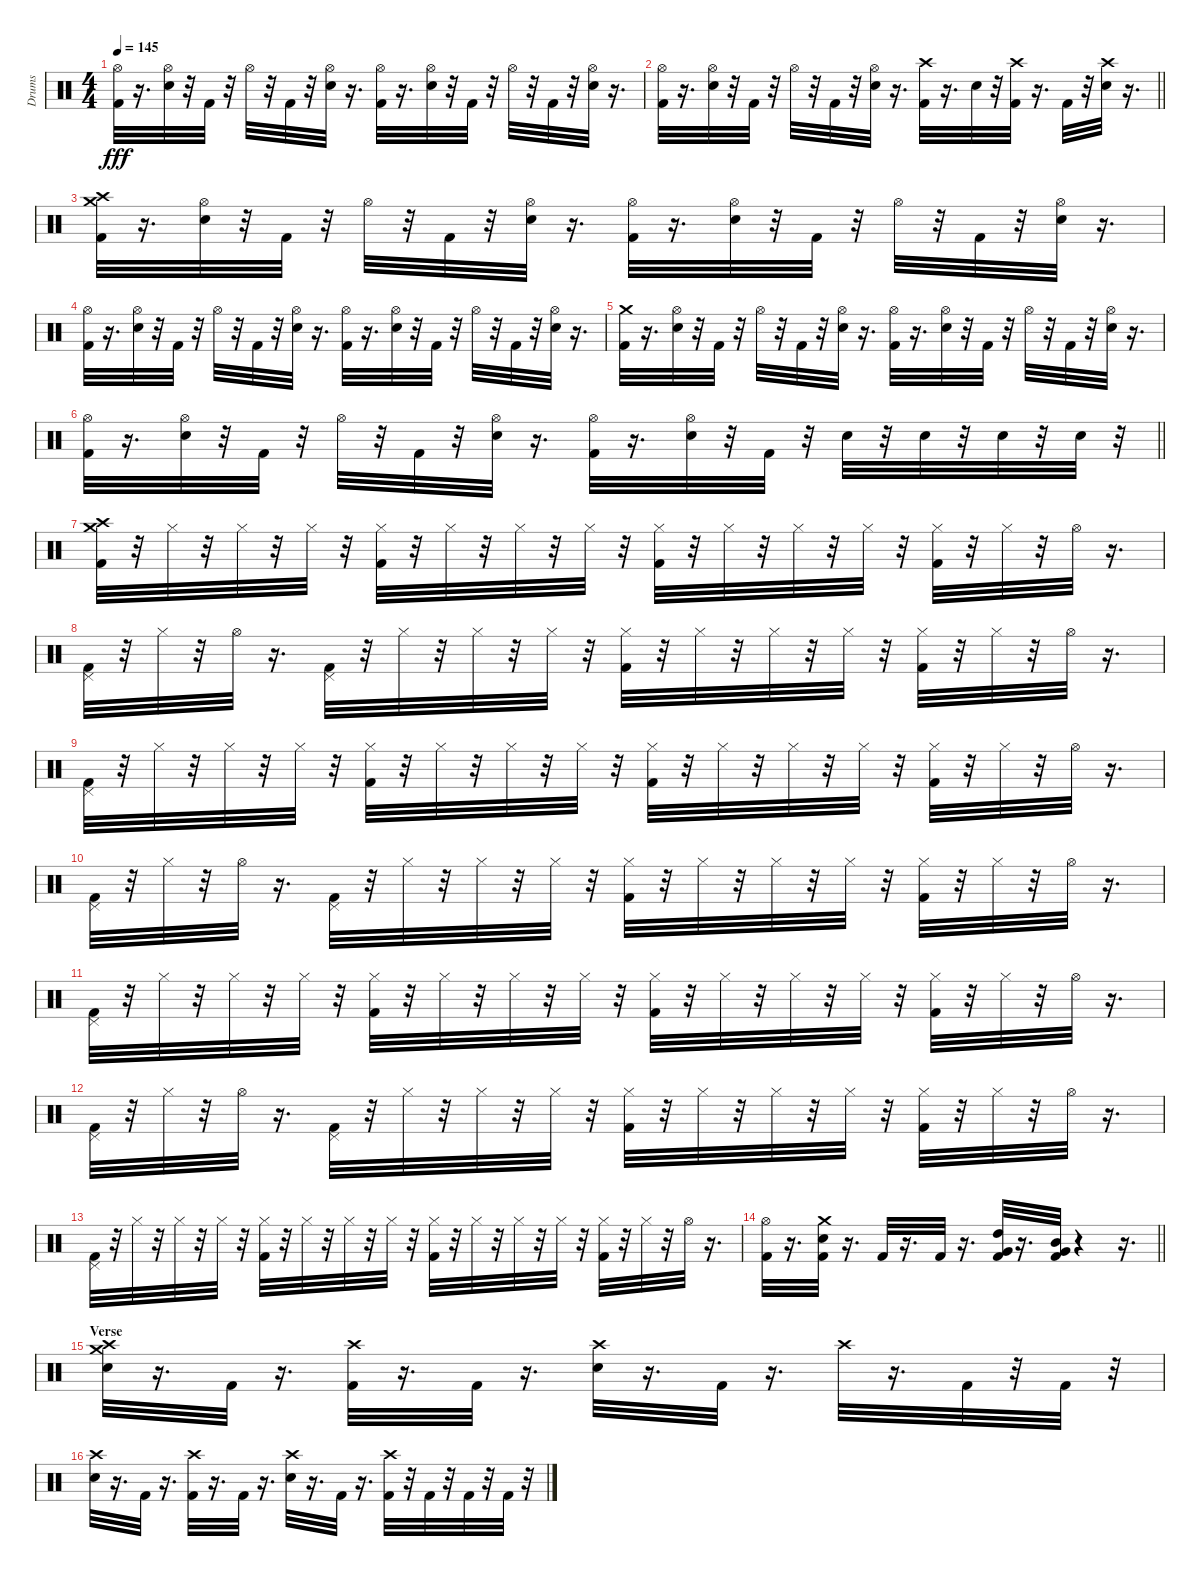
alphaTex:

\track ("Drums" "Drums") {instrument percussion}
\staff {score}
\articulation defaults
\ts (4 4)
\tempo 145
\clef neutral
\ks c
("Hi-Hat (open)" "Kick (hit) 2").32{dy fff} r.16{d} ("Hi-Hat (open)" "Snare (hit) 2").32 r.32 "Kick (hit) 2".32 r.32 "Hi-Hat (open)".32 r.32 "Kick (hit) 2".32 r.32 ("Hi-Hat (open)" "Snare (hit) 2").32 r.16{d} ("Hi-Hat (open)" "Kick (hit) 2").32 r.16{d} ("Hi-Hat (open)" "Snare (hit) 2").32 r.32 "Kick (hit) 2".32 r.32 "Hi-Hat (open)".32 r.32 "Kick (hit) 2".32 r.32 ("Hi-Hat (open)" "Snare (hit) 2").32 r.16{d} |
\barLineRight lightlight
("Hi-Hat (open)" "Kick (hit) 2").32 r.16{d} ("Hi-Hat (open)" "Snare (hit) 2").32 r.32 "Kick (hit) 2".32 r.32 "Hi-Hat (open)".32 r.32 "Kick (hit) 2".32 r.32 ("Hi-Hat (open)" "Snare (hit) 2").32 r.16{d} ("Crash high (hit)" "Kick (hit) 2").32 r.16{d} "Snare (hit) 2".32 r.32 ("Crash high (hit)" "Kick (hit) 2").32 r.16{d} "Kick (hit) 2".32 r.32 ("Crash high (hit)" "Snare (hit) 2").32 r.16{d} |
("Crash medium (hit)" "Crash high (hit)" "Kick (hit) 2").32 r.16{d} ("Hi-Hat (open)" "Snare (hit) 2").32 r.32 "Kick (hit) 2".32 r.32 "Hi-Hat (open)".32 r.32 "Kick (hit) 2".32 r.32 ("Hi-Hat (open)" "Snare (hit) 2").32 r.16{d} ("Hi-Hat (open)" "Kick (hit) 2").32 r.16{d} ("Hi-Hat (open)" "Snare (hit) 2").32 r.32 "Kick (hit) 2".32 r.32 "Hi-Hat (open)".32 r.32 "Kick (hit) 2".32 r.32 ("Hi-Hat (open)" "Snare (hit) 2").32 r.16{d} |
("Hi-Hat (open)" "Kick (hit) 2").32 r.16{d} ("Hi-Hat (open)" "Snare (hit) 2").32 r.32 "Kick (hit) 2".32 r.32 "Hi-Hat (open)".32 r.32 "Kick (hit) 2".32 r.32 ("Hi-Hat (open)" "Snare (hit) 2").32 r.16{d} ("Hi-Hat (open)" "Kick (hit) 2").32 r.16{d} ("Hi-Hat (open)" "Snare (hit) 2").32 r.32 "Kick (hit) 2".32 r.32 "Hi-Hat (open)".32 r.32 "Kick (hit) 2".32 r.32 ("Hi-Hat (open)" "Snare (hit) 2").32 r.16{d} |
("Crash medium (hit)" "Kick (hit) 2").32 r.16{d} ("Hi-Hat (open)" "Snare (hit) 2").32 r.32 "Kick (hit) 2".32 r.32 "Hi-Hat (open)".32 r.32 "Kick (hit) 2".32 r.32 ("Hi-Hat (open)" "Snare (hit) 2").32 r.16{d} ("Hi-Hat (open)" "Kick (hit) 2").32 r.16{d} ("Hi-Hat (open)" "Snare (hit) 2").32 r.32 "Kick (hit) 2".32 r.32 "Hi-Hat (open)".32 r.32 "Kick (hit) 2".32 r.32 ("Hi-Hat (open)" "Snare (hit) 2").32 r.16{d} |
\barLineRight lightlight
("Hi-Hat (open)" "Kick (hit) 2").32 r.16{d} ("Hi-Hat (open)" "Snare (hit) 2").32 r.32 "Kick (hit) 2".32 r.32 "Hi-Hat (open)".32 r.32 "Kick (hit) 2".32 r.32 ("Hi-Hat (open)" "Snare (hit) 2").32 r.16{d} ("Hi-Hat (open)" "Kick (hit) 2").32 r.16{d} ("Hi-Hat (open)" "Snare (hit) 2").32 r.32 "Kick (hit) 2".32 r.32 "Snare (hit) 2".32 r.32 "Snare (hit) 2".32 r.32 "Snare (hit) 2".32 r.32 "Snare (hit) 2".32 r.32 |
("Crash medium (hit)" "Crash high (hit)" "Kick (hit) 2").32 r.32 "Hi-Hat (closed)".32 r.32 "Hi-Hat (closed)".32 r.32 "Hi-Hat (closed)".32 r.32 ("Hi-Hat (closed)" "Kick (hit) 2").32 r.32 "Hi-Hat (closed)".32 r.32 "Hi-Hat (closed)".32 r.32 "Hi-Hat (closed)".32 r.32 ("Hi-Hat (closed)" "Kick (hit) 2").32 r.32 "Hi-Hat (closed)".32 r.32 "Hi-Hat (closed)".32 r.32 "Hi-Hat (closed)".32 r.32 ("Hi-Hat (closed)" "Kick (hit) 2").32 r.32 "Hi-Hat (closed)".32 r.32 "Hi-Hat (open)".32 r.16{d} |
("Pedal Hi-Hat (hit)" "Kick (hit) 2").32 r.32 "Hi-Hat (closed)".32 r.32 "Hi-Hat (open)".32 r.16{d} ("Pedal Hi-Hat (hit)" "Kick (hit) 2").32 r.32 "Hi-Hat (closed)".32 r.32 "Hi-Hat (closed)".32 r.32 "Hi-Hat (closed)".32 r.32 ("Hi-Hat (closed)" "Kick (hit) 2").32 r.32 "Hi-Hat (closed)".32 r.32 "Hi-Hat (closed)".32 r.32 "Hi-Hat (closed)".32 r.32 ("Hi-Hat (closed)" "Kick (hit) 2").32 r.32 "Hi-Hat (closed)".32 r.32 "Hi-Hat (open)".32 r.16{d} |
("Pedal Hi-Hat (hit)" "Kick (hit) 2").32 r.32 "Hi-Hat (closed)".32 r.32 "Hi-Hat (closed)".32 r.32 "Hi-Hat (closed)".32 r.32 ("Hi-Hat (closed)" "Kick (hit) 2").32 r.32 "Hi-Hat (closed)".32 r.32 "Hi-Hat (closed)".32 r.32 "Hi-Hat (closed)".32 r.32 ("Hi-Hat (closed)" "Kick (hit) 2").32 r.32 "Hi-Hat (closed)".32 r.32 "Hi-Hat (closed)".32 r.32 "Hi-Hat (closed)".32 r.32 ("Hi-Hat (closed)" "Kick (hit) 2").32 r.32 "Hi-Hat (closed)".32 r.32 "Hi-Hat (open)".32 r.16{d} |
("Pedal Hi-Hat (hit)" "Kick (hit) 2").32 r.32 "Hi-Hat (closed)".32 r.32 "Hi-Hat (open)".32 r.16{d} ("Pedal Hi-Hat (hit)" "Kick (hit) 2").32 r.32 "Hi-Hat (closed)".32 r.32 "Hi-Hat (closed)".32 r.32 "Hi-Hat (closed)".32 r.32 ("Hi-Hat (closed)" "Kick (hit) 2").32 r.32 "Hi-Hat (closed)".32 r.32 "Hi-Hat (closed)".32 r.32 "Hi-Hat (closed)".32 r.32 ("Hi-Hat (closed)" "Kick (hit) 2").32 r.32 "Hi-Hat (closed)".32 r.32 "Hi-Hat (open)".32 r.16{d} |
("Pedal Hi-Hat (hit)" "Kick (hit) 2").32 r.32 "Hi-Hat (closed)".32 r.32 "Hi-Hat (closed)".32 r.32 "Hi-Hat (closed)".32 r.32 ("Hi-Hat (closed)" "Kick (hit) 2").32 r.32 "Hi-Hat (closed)".32 r.32 "Hi-Hat (closed)".32 r.32 "Hi-Hat (closed)".32 r.32 ("Hi-Hat (closed)" "Kick (hit) 2").32 r.32 "Hi-Hat (closed)".32 r.32 "Hi-Hat (closed)".32 r.32 "Hi-Hat (closed)".32 r.32 ("Hi-Hat (closed)" "Kick (hit) 2").32 r.32 "Hi-Hat (closed)".32 r.32 "Hi-Hat (open)".32 r.16{d} |
("Pedal Hi-Hat (hit)" "Kick (hit) 2").32 r.32 "Hi-Hat (closed)".32 r.32 "Hi-Hat (open)".32 r.16{d} ("Pedal Hi-Hat (hit)" "Kick (hit) 2").32 r.32 "Hi-Hat (closed)".32 r.32 "Hi-Hat (closed)".32 r.32 "Hi-Hat (closed)".32 r.32 ("Hi-Hat (closed)" "Kick (hit) 2").32 r.32 "Hi-Hat (closed)".32 r.32 "Hi-Hat (closed)".32 r.32 "Hi-Hat (closed)".32 r.32 ("Hi-Hat (closed)" "Kick (hit) 2").32 r.32 "Hi-Hat (closed)".32 r.32 "Hi-Hat (open)".32 r.16{d} |
("Pedal Hi-Hat (hit)" "Kick (hit) 2").32 r.32 "Hi-Hat (closed)".32 r.32 "Hi-Hat (closed)".32 r.32 "Hi-Hat (closed)".32 r.32 ("Hi-Hat (closed)" "Kick (hit) 2").32 r.32 "Hi-Hat (closed)".32 r.32 "Hi-Hat (closed)".32 r.32 "Hi-Hat (closed)".32 r.32 ("Hi-Hat (closed)" "Kick (hit) 2").32 r.32 "Hi-Hat (closed)".32 r.32 "Hi-Hat (closed)".32 r.32 "Hi-Hat (closed)".32 r.32 ("Hi-Hat (closed)" "Kick (hit) 2").32 r.32 "Hi-Hat (closed)".32 r.32 "Hi-Hat (open)".32 r.16{d} |
\barLineRight lightlight
("Hi-Hat (open)" "Kick (hit) 2").32 r.16{d} ("Crash medium (hit)" "Snare (hit) 2" "Kick (hit) 2").32 r.16{d} "Kick (hit) 2".32 r.16{d} "Kick (hit) 2".32 r.16{d} ("Kick (hit) 2" "High Tom (hit)" "Very Low Tom (hit)").32 r.16{d} ("Mid Tom (hit)" "Very Low Tom (hit)" "Kick (hit) 2").32 r.4 r.16{d} |
\section ("" "Verse")
("Snare (hit) 2" "Crash medium (hit)" "Crash high (hit)").32 r.16{d} "Kick (hit) 2".32 r.16{d} ("Kick (hit) 2" "Crash high (hit)").32 r.16{d} "Kick (hit) 2".32 r.16{d} ("Snare (hit) 2" "Crash high (hit)").32 r.16{d} "Kick (hit) 2".32 r.16{d} "Crash high (hit)".32 r.16{d} "Kick (hit) 2".32 r.32 "Kick (hit) 2".32 r.32 |
("Snare (hit) 2" "Crash high (hit)").32 r.16{d} "Kick (hit) 2".32 r.16{d} ("Kick (hit) 2" "Crash high (hit)").32 r.16{d} "Kick (hit) 2".32 r.16{d} ("Snare (hit) 2" "Crash high (hit)").32 r.16{d} "Kick (hit) 2".32 r.16{d} ("Kick (hit) 2" "Crash high (hit)").32 r.32 "Kick (hit) 2".32 r.32 "Kick (hit) 2".32 r.32 "Kick (hit) 2".32 r.32
